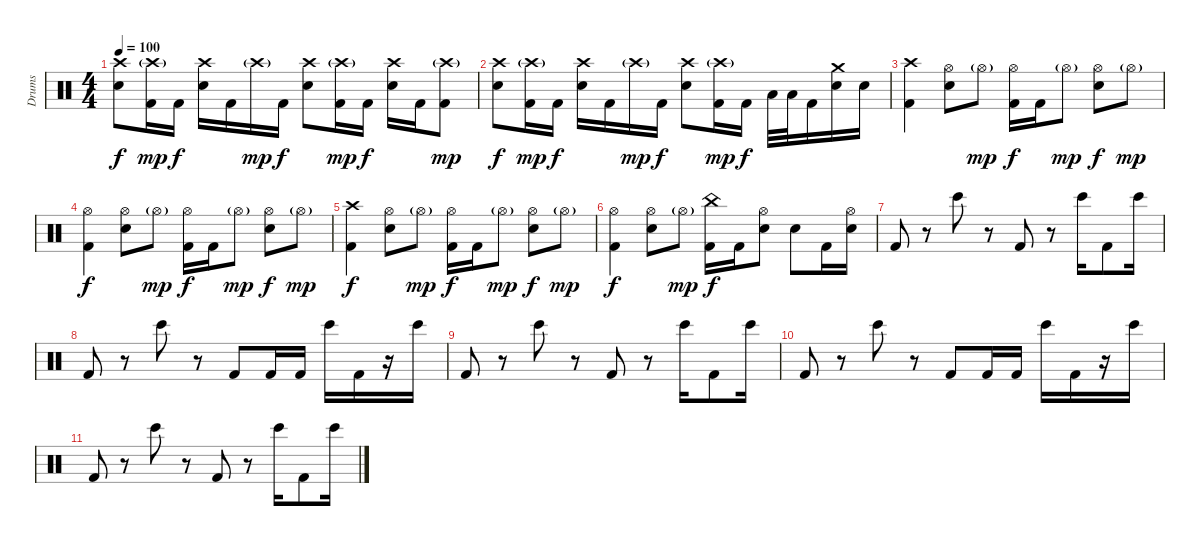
\track ("Drums" "Drums") {instrument percussion}
\staff {score}
\articulation defaults
\ts (4 4)
\tempo 100
\clef neutral
\ks c
("Crash high (hit)" "Snare (hit) 2").8{dy f} ("Crash high (hit)"{g} "Kick (hit) 2").16{dy mp} "Kick (hit) 2".16{dy f} ("Crash high (hit)" "Snare (hit) 2").16 "Kick (hit) 2".16 "Crash high (hit)"{g}.16{dy mp} "Kick (hit) 2".16{dy f} ("Crash high (hit)" "Snare (hit) 2").8 ("Crash high (hit)"{g} "Kick (hit) 2").16{dy mp} "Kick (hit) 2".16{dy f} ("Crash high (hit)" "Snare (hit) 2").16 "Kick (hit) 2".16 ("Crash high (hit)"{g} "Kick (hit) 2").8{dy mp} |
("Crash high (hit)" "Snare (hit) 2").8{dy f} ("Crash high (hit)"{g} "Kick (hit) 2").16{dy mp} "Kick (hit) 2".16{dy f} ("Crash high (hit)" "Snare (hit) 2").16 "Kick (hit) 2".16 "Crash high (hit)"{g}.16{dy mp} "Kick (hit) 2".16{dy f} ("Crash high (hit)" "Snare (hit) 2").8 ("Crash high (hit)"{g} "Kick (hit) 2").16{dy mp} "Kick (hit) 2".16{dy f} "Low Tom (hit)".32 "Low Tom (hit)".32 "Kick (hit) 2".16 ("Crash medium (hit)" "Snare (hit) 2").16 "Snare (hit) 2".16 |
("Crash high (hit)" "Kick (hit) 2").4 ("Hi-Hat (open)" "Snare (hit) 2").8 "Hi-Hat (open)"{g}.8{dy mp} ("Hi-Hat (open)" "Kick (hit) 2").16{dy f} "Kick (hit) 2".16 "Hi-Hat (open)"{g}.8{dy mp} ("Hi-Hat (open)" "Snare (hit) 2").8{dy f} "Hi-Hat (open)"{g}.8{dy mp} |
("Hi-Hat (open)" "Kick (hit) 2").4{dy f} ("Hi-Hat (open)" "Snare (hit) 2").8 "Hi-Hat (open)"{g}.8{dy mp} ("Hi-Hat (open)" "Kick (hit) 2").16{dy f} "Kick (hit) 2".16 "Hi-Hat (open)"{g}.8{dy mp} ("Hi-Hat (open)" "Snare (hit) 2").8{dy f} "Hi-Hat (open)"{g}.8{dy mp} |
("Crash high (hit)" "Kick (hit) 2").4{dy f} ("Hi-Hat (open)" "Snare (hit) 2").8 "Hi-Hat (open)"{g}.8{dy mp} ("Hi-Hat (open)" "Kick (hit) 2").16{dy f} "Kick (hit) 2".16 "Hi-Hat (open)"{g}.8{dy mp} ("Hi-Hat (open)" "Snare (hit) 2").8{dy f} "Hi-Hat (open)"{g}.8{dy mp} |
("Hi-Hat (open)" "Kick (hit) 2").4{dy f} ("Hi-Hat (open)" "Snare (hit) 2").8 "Hi-Hat (open)"{g}.8{dy mp} ("China (hit)" "Kick (hit) 2").16{dy f} "Kick (hit) 2".16 ("Hi-Hat (open)" "Snare (hit) 2").8 "Snare (hit) 2".8 "Kick (hit) 2".16 ("Hi-Hat (open)" "Snare (hit) 2").16 |
"Kick (hit) 2".8{volume 8} r.8{volume 0} "Bongo High (hit)".8 r.8 "Kick (hit) 2".8 r.8 "Bongo High (hit)".16 "Kick (hit) 2".8 "Bongo High (hit)".16 |
"Kick (hit) 2".8 r.8 "Bongo High (hit)".8 r.8 "Kick (hit) 2".8 "Kick (hit) 2".16 "Kick (hit) 2".16 "Bongo High (hit)".16 "Kick (hit) 2".16 r.16 "Bongo High (hit)".16 |
"Kick (hit) 2".8 r.8 "Bongo High (hit)".8 r.8 "Kick (hit) 2".8 r.8 "Bongo High (hit)".16 "Kick (hit) 2".8 "Bongo High (hit)".16 |
"Kick (hit) 2".8 r.8 "Bongo High (hit)".8 r.8 "Kick (hit) 2".8 "Kick (hit) 2".16 "Kick (hit) 2".16 "Bongo High (hit)".16 "Kick (hit) 2".16 r.16 "Bongo High (hit)".16 |
"Kick (hit) 2".8 r.8 "Bongo High (hit)".8 r.8 "Kick (hit) 2".8 r.8 "Bongo High (hit)".16 "Kick (hit) 2".8 "Bongo High (hit)".16
